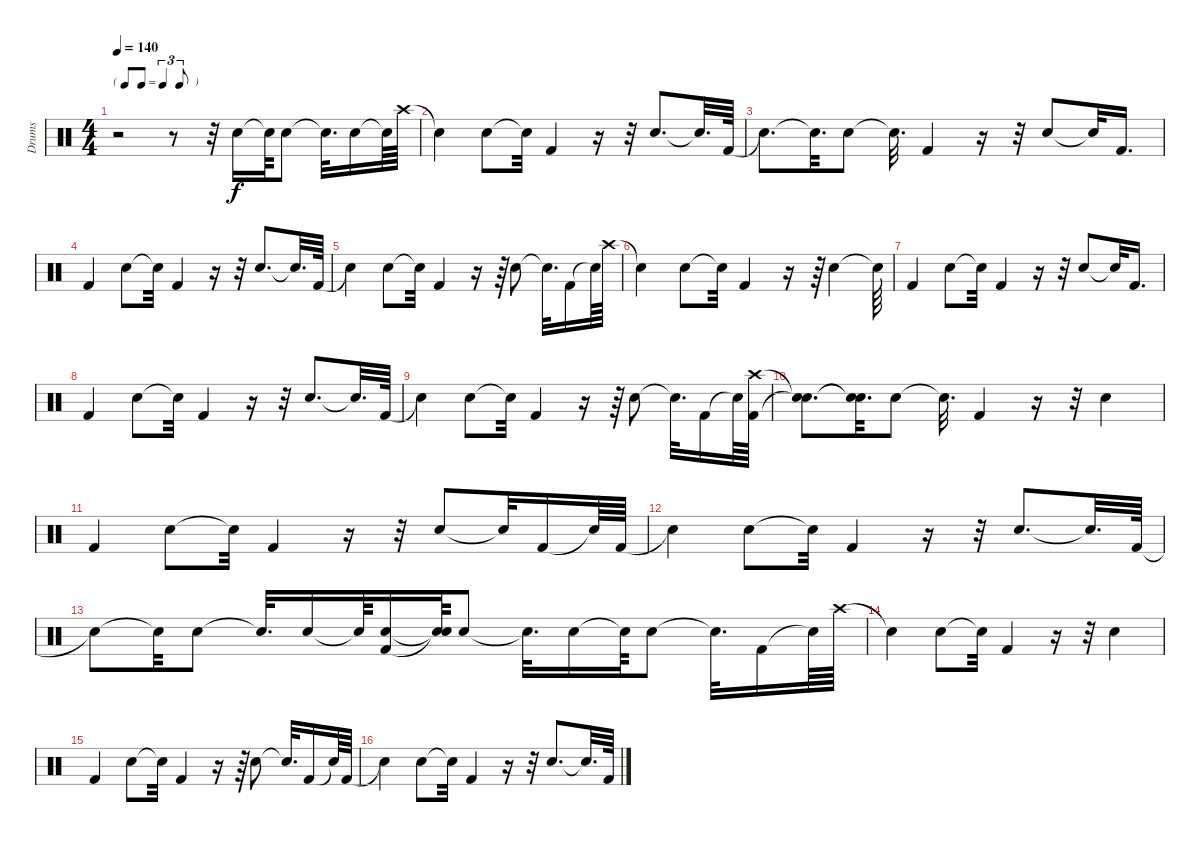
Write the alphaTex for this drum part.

\track ("Drums" "Drums") {instrument percussion}
\staff {score}
\articulation defaults
\ts (4 4)
\tf triplet8th
\tempo 140
\clef neutral
\ks c
r.2{dy f} r.8 r.32 "Snare (hit) 2".16 "Snare (hit)"{t}.64 "Snare (hit) 2".8 "Snare (hit)"{t}.32{d} "Snare (hit) 2".16 "Snare (hit)"{t}.64 "Crash high (hit)".64 |
"Snare (hit)"{t}.4 "Snare (hit) 2".8 "Snare (hit)"{t}.32 "Kick (hit) 2".4 r.16 r.32 "Snare (hit) 2".8{d} "Snare (hit)"{t}.32{d} "Kick (hit) 2".64 |
"Snare (hit)"{t}.8{d} "Snare (hit)"{t}.32{d} "Snare (hit) 2".8 "Snare (hit)"{t}.32{d} "Kick (hit) 2".4 r.16 r.32 "Snare (hit) 2".8 "Snare (hit)"{t}.32 "Kick (hit) 2".16{d} |
"Kick (hit) 2".4 "Snare (hit) 2".8 "Snare (hit)"{t}.32 "Kick (hit) 2".4 r.16 r.32 "Snare (hit) 2".8{d} "Snare (hit)"{t}.32{d} "Kick (hit) 2".64 |
"Snare (hit)"{t}.4 "Snare (hit) 2".8 "Snare (hit)"{t}.32 "Kick (hit) 2".4 r.16 r.64 "Snare (hit) 2".8 "Snare (hit)"{t}.32{d} "Kick (hit) 2".16 "Snare (hit)"{t}.64 "Crash high (hit)".64 |
"Snare (hit)"{t}.4 "Snare (hit) 2".8 "Snare (hit)"{t}.32 "Kick (hit) 2".4 r.16 r.64 "Snare (hit) 2".4 "Snare (hit)"{t}.64 |
"Kick (hit) 2".4 "Snare (hit) 2".8 "Snare (hit)"{t}.32 "Kick (hit) 2".4 r.16 r.32 "Snare (hit) 2".8 "Snare (hit)"{t}.32 "Kick (hit) 2".16{d} |
"Kick (hit) 2".4 "Snare (hit) 2".8 "Snare (hit)"{t}.32 "Kick (hit) 2".4 r.16 r.32 "Snare (hit) 2".8{d} "Snare (hit)"{t}.32{d} "Kick (hit) 2".64 |
"Snare (hit)"{t}.4 "Snare (hit) 2".8 "Snare (hit)"{t}.32 "Kick (hit) 2".4 r.16 r.64 "Snare (hit) 2".8 "Snare (hit)"{t}.32{d} "Kick (hit) 2".16 "Snare (hit)"{t}.64 ("Kick (hit) 2" "Crash high (hit)").64 |
("Snare (hit)"{t} "Snare (hit)"{t}).8{d} ("Snare (hit)"{t} "Snare (hit)"{t}).32{d} "Snare (hit) 2".8 "Snare (hit)"{t}.32{d} "Kick (hit) 2".4 r.16 r.32 "Snare (hit) 2".4 |
"Kick (hit) 2".4 "Snare (hit) 2".8 "Snare (hit)"{t}.32 "Kick (hit) 2".4 r.16 r.32 "Snare (hit) 2".8 "Snare (hit)"{t}.32 "Kick (hit) 2".16 "Snare (hit)"{t}.64 "Kick (hit) 2".64 |
"Snare (hit)"{t}.4 "Snare (hit) 2".8 "Snare (hit)"{t}.32 "Kick (hit) 2".4 r.16 r.32 "Snare (hit) 2".8{d} "Snare (hit)"{t}.32{d} "Kick (hit) 2".64 |
"Snare (hit)"{t}.8 "Snare (hit)"{t}.32 "Snare (hit) 2".8 "Snare (hit)"{t}.32{d} "Snare (hit) 2".16 "Snare (hit)"{t}.64 ("Kick (hit) 2" "Snare (hit) 2").16 ("Snare (hit)"{t} "Snare (hit)"{t}).64 "Snare (hit) 2".8 "Snare (hit)"{t}.32{d} "Snare (hit) 2".16 "Snare (hit)"{t}.64 "Snare (hit) 2".8 "Snare (hit)"{t}.32{d} "Kick (hit) 2".16 "Snare (hit)"{t}.64 "Crash high (hit)".64 |
"Snare (hit)"{t}.4 "Snare (hit) 2".8 "Snare (hit)"{t}.32 "Kick (hit) 2".4 r.16 r.32 "Snare (hit) 2".4 |
"Kick (hit) 2".4 "Snare (hit) 2".8 "Snare (hit)"{t}.32 "Kick (hit) 2".4 r.16 r.64 "Snare (hit) 2".8 "Snare (hit)"{t}.32{d} "Kick (hit) 2".16 "Snare (hit)"{t}.64 "Kick (hit) 2".64 |
"Snare (hit)"{t}.4 "Snare (hit) 2".8 "Snare (hit)"{t}.32 "Kick (hit) 2".4 r.16 r.32 "Snare (hit) 2".8{d} "Snare (hit)"{t}.32{d} "Kick (hit) 2".64
